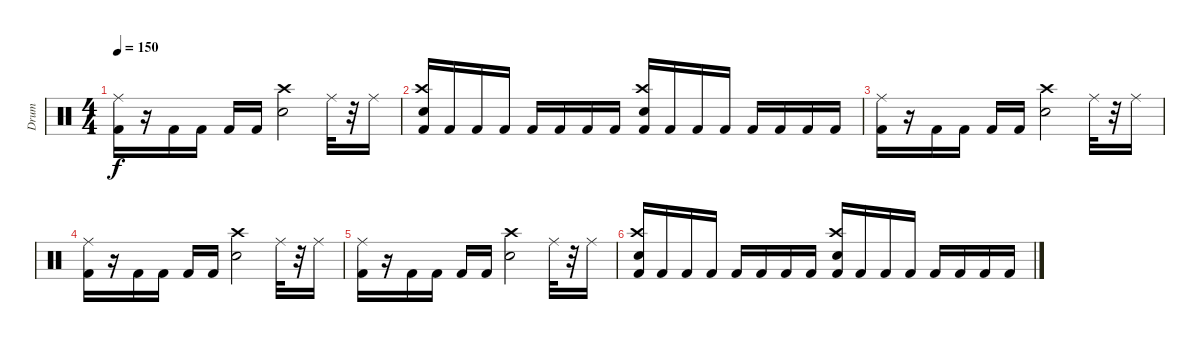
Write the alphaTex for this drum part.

\track ("Drum" "Drum") {instrument percussion}
\staff {score}
\articulation defaults
\ts (4 4)
\tempo 150
\clef neutral
\ks c
("Kick (hit) 2" "Ride (middle)").16{dy f} r.16 "Kick (hit) 2".16 "Kick (hit) 2".16 "Kick (hit) 2".16 "Kick (hit) 2".16 ("Crash high (hit)" "Electric Snare (hit)").2 "Ride (middle)".32 r.32 "Ride (middle)".16 |
("Kick (hit) 2" "Crash high (hit)" "Electric Snare (hit)").16 "Kick (hit) 2".16 "Kick (hit) 2".16 "Kick (hit) 2".16 "Kick (hit) 2".16 "Kick (hit) 2".16 "Kick (hit) 2".16 "Kick (hit) 2".16 ("Kick (hit) 2" "Crash high (hit)" "Electric Snare (hit)").16 "Kick (hit) 2".16 "Kick (hit) 2".16 "Kick (hit) 2".16 "Kick (hit) 2".16 "Kick (hit) 2".16 "Kick (hit) 2".16 "Kick (hit) 2".16 |
("Kick (hit) 2" "Ride (middle)").16 r.16 "Kick (hit) 2".16 "Kick (hit) 2".16 "Kick (hit) 2".16 "Kick (hit) 2".16 ("Crash high (hit)" "Electric Snare (hit)").2 "Ride (middle)".32 r.32 "Ride (middle)".16 |
("Kick (hit) 2" "Ride (middle)").16 r.16 "Kick (hit) 2".16 "Kick (hit) 2".16 "Kick (hit) 2".16 "Kick (hit) 2".16 ("Crash high (hit)" "Electric Snare (hit)").2 "Ride (middle)".32 r.32 "Ride (middle)".16 |
("Kick (hit) 2" "Ride (middle)").16 r.16 "Kick (hit) 2".16 "Kick (hit) 2".16 "Kick (hit) 2".16 "Kick (hit) 2".16 ("Crash high (hit)" "Electric Snare (hit)").2 "Ride (middle)".32 r.32 "Ride (middle)".16 |
("Kick (hit) 2" "Crash high (hit)" "Electric Snare (hit)").16 "Kick (hit) 2".16 "Kick (hit) 2".16 "Kick (hit) 2".16 "Kick (hit) 2".16 "Kick (hit) 2".16 "Kick (hit) 2".16 "Kick (hit) 2".16 ("Kick (hit) 2" "Crash high (hit)" "Electric Snare (hit)").16 "Kick (hit) 2".16 "Kick (hit) 2".16 "Kick (hit) 2".16 "Kick (hit) 2".16 "Kick (hit) 2".16 "Kick (hit) 2".16 "Kick (hit) 2".16
